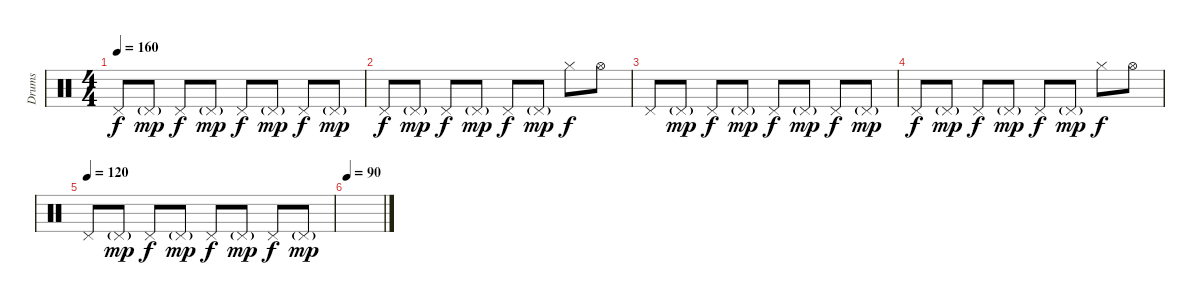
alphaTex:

\track ("Drums" "Drums") {instrument percussion}
\staff {score}
\articulation defaults
\ts (4 4)
\tempo 160
\clef neutral
\ks c "Pedal Hi-Hat (hit)".8{dy f} "Pedal Hi-Hat (hit)"{g}.8{dy mp} "Pedal Hi-Hat (hit)".8{dy f} "Pedal Hi-Hat (hit)"{g}.8{dy mp} "Pedal Hi-Hat (hit)".8{dy f} "Pedal Hi-Hat (hit)"{g}.8{dy mp} "Pedal Hi-Hat (hit)".8{dy f} "Pedal Hi-Hat (hit)"{g}.8{dy mp}
|
"Pedal Hi-Hat (hit)".8{dy f} "Pedal Hi-Hat (hit)"{g}.8{dy mp} "Pedal Hi-Hat (hit)".8{dy f} "Pedal Hi-Hat (hit)"{g}.8{dy mp} "Pedal Hi-Hat (hit)".8{dy f} "Pedal Hi-Hat (hit)"{g}.8{dy mp} "Hi-Hat (closed)".8{dy f} "Hi-Hat (open)".8 |
"Pedal Hi-Hat (hit)".8 "Pedal Hi-Hat (hit)"{g}.8{dy mp} "Pedal Hi-Hat (hit)".8{dy f} "Pedal Hi-Hat (hit)"{g}.8{dy mp} "Pedal Hi-Hat (hit)".8{dy f} "Pedal Hi-Hat (hit)"{g}.8{dy mp} "Pedal Hi-Hat (hit)".8{dy f} "Pedal Hi-Hat (hit)"{g}.8{dy mp} |
"Pedal Hi-Hat (hit)".8{dy f} "Pedal Hi-Hat (hit)"{g}.8{dy mp} "Pedal Hi-Hat (hit)".8{dy f} "Pedal Hi-Hat (hit)"{g}.8{dy mp} "Pedal Hi-Hat (hit)".8{dy f} "Pedal Hi-Hat (hit)"{g}.8{dy mp} "Hi-Hat (closed)".8{dy f} "Hi-Hat (open)".8 |
\tempo (120)
"Pedal Hi-Hat (hit)".8 "Pedal Hi-Hat (hit)"{g}.8{dy mp} "Pedal Hi-Hat (hit)".8{dy f} "Pedal Hi-Hat (hit)"{g}.8{dy mp} "Pedal Hi-Hat (hit)".8{dy f} "Pedal Hi-Hat (hit)"{g}.8{dy mp} "Pedal Hi-Hat (hit)".8{dy f} "Pedal Hi-Hat (hit)"{g}.8{dy mp} |
\tempo 90
